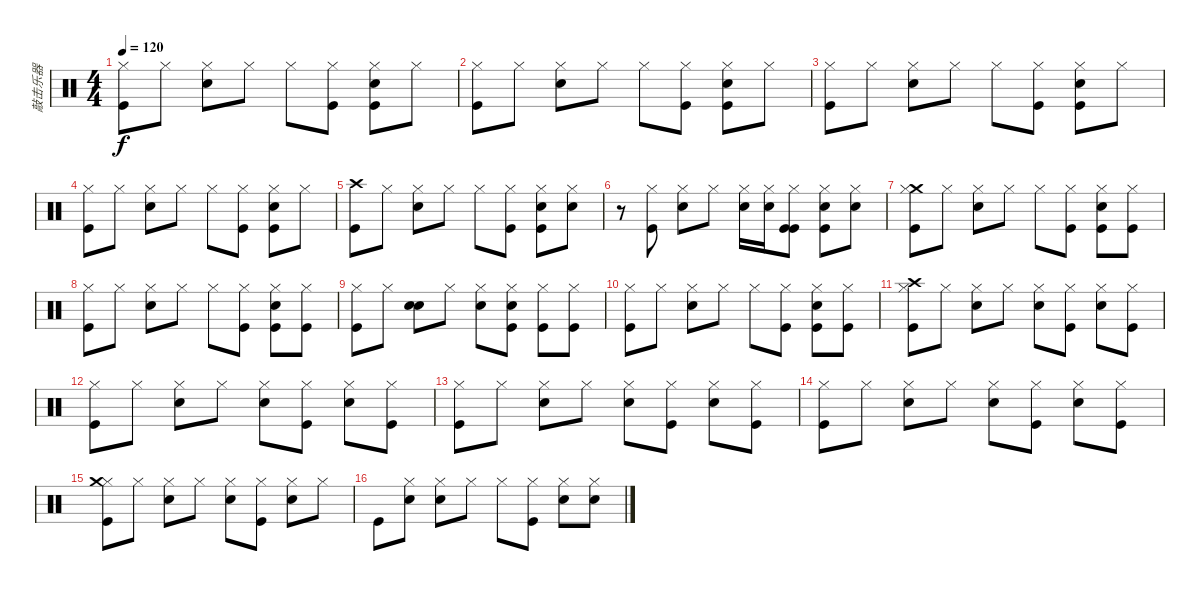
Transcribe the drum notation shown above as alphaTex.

\track ("敲击乐器" "敲击乐器") {instrument percussion}
\staff {score}
\articulation defaults
\ts (4 4)
\tempo 120
\clef neutral
\ks c
("Hi-Hat (closed)" "Kick (hit)").8{dy f} "Hi-Hat (closed)".8 ("Hi-Hat (closed)" "Snare (hit) 2").8 "Hi-Hat (closed)".8 "Hi-Hat (closed)".8 ("Hi-Hat (closed)" "Kick (hit)").8 ("Hi-Hat (closed)" "Snare (hit) 2" "Kick (hit)").8 "Hi-Hat (closed)".8 |
("Hi-Hat (closed)" "Kick (hit)").8 "Hi-Hat (closed)".8 ("Hi-Hat (closed)" "Snare (hit) 2").8 "Hi-Hat (closed)".8 "Hi-Hat (closed)".8 ("Hi-Hat (closed)" "Kick (hit)").8 ("Hi-Hat (closed)" "Snare (hit) 2" "Kick (hit)").8 "Hi-Hat (closed)".8 |
("Hi-Hat (closed)" "Kick (hit)").8 "Hi-Hat (closed)".8 ("Hi-Hat (closed)" "Snare (hit) 2").8 "Hi-Hat (closed)".8 "Hi-Hat (closed)".8 ("Hi-Hat (closed)" "Kick (hit)").8 ("Hi-Hat (closed)" "Snare (hit) 2" "Kick (hit)").8 "Hi-Hat (closed)".8 |
("Hi-Hat (closed)" "Kick (hit)").8 "Hi-Hat (closed)".8 ("Hi-Hat (closed)" "Snare (hit) 2").8 "Hi-Hat (closed)".8 "Hi-Hat (closed)".8 ("Hi-Hat (closed)" "Kick (hit)").8 ("Hi-Hat (closed)" "Snare (hit) 2" "Kick (hit)").8 "Hi-Hat (closed)".8 |
("Crash high (hit)" "Kick (hit)").8 "Hi-Hat (closed)".8 ("Hi-Hat (closed)" "Snare (hit) 2").8 "Hi-Hat (closed)".8 "Hi-Hat (closed)".8 ("Hi-Hat (closed)" "Kick (hit)").8 ("Hi-Hat (closed)" "Snare (hit) 2" "Kick (hit)").8 ("Hi-Hat (closed)" "Snare (hit) 2").8 |
r.8 ("Hi-Hat (closed)" "Kick (hit)").8 ("Hi-Hat (closed)" "Snare (hit) 2").8 "Hi-Hat (closed)".8 ("Hi-Hat (closed)" "Snare (hit) 2").16 ("Hi-Hat (closed)" "Snare (hit) 2").16 ("Hi-Hat (closed)" "Kick (hit)" "Kick (hit)").8 ("Hi-Hat (closed)" "Snare (hit) 2" "Kick (hit)").8 ("Hi-Hat (closed)" "Snare (hit) 2").8 |
("Crash medium (hit)" "Hi-Hat (closed)" "Kick (hit)").8 "Hi-Hat (closed)".8 ("Hi-Hat (closed)" "Snare (hit) 2").8 "Hi-Hat (closed)".8 "Hi-Hat (closed)".8 ("Hi-Hat (closed)" "Kick (hit)").8 ("Hi-Hat (closed)" "Snare (hit) 2" "Kick (hit)").8 ("Hi-Hat (closed)" "Kick (hit)").8 |
("Hi-Hat (closed)" "Kick (hit)").8 "Hi-Hat (closed)".8 ("Hi-Hat (closed)" "Snare (hit) 2").8 "Hi-Hat (closed)".8 "Hi-Hat (closed)".8 ("Hi-Hat (closed)" "Kick (hit)").8 ("Hi-Hat (closed)" "Snare (hit) 2" "Kick (hit)").8 ("Hi-Hat (closed)" "Kick (hit)").8 |
("Hi-Hat (closed)" "Kick (hit)").8 "Hi-Hat (closed)".8 ("Snare (hit)" "Snare (hit) 2").8 "Hi-Hat (closed)".8 ("Hi-Hat (closed)" "Snare (hit) 2").8 ("Hi-Hat (closed)" "Snare (hit) 2" "Kick (hit)").8 ("Hi-Hat (closed)" "Kick (hit)").8 ("Hi-Hat (closed)" "Kick (hit)").8 |
("Hi-Hat (closed)" "Kick (hit)").8 "Hi-Hat (closed)".8 ("Hi-Hat (closed)" "Snare (hit) 2").8 "Hi-Hat (closed)".8 "Hi-Hat (closed)".8 ("Hi-Hat (closed)" "Kick (hit)").8 ("Hi-Hat (closed)" "Snare (hit) 2" "Kick (hit)").8 ("Hi-Hat (closed)" "Kick (hit)").8 |
("Hi-Hat (closed)" "Crash high (hit)" "Kick (hit)").8 "Hi-Hat (closed)".8 ("Hi-Hat (closed)" "Snare (hit) 2").8 "Hi-Hat (closed)".8 ("Hi-Hat (closed)" "Snare (hit) 2").8 ("Hi-Hat (closed)" "Kick (hit)").8 ("Hi-Hat (closed)" "Snare (hit) 2").8 ("Hi-Hat (closed)" "Kick (hit)").8 |
("Hi-Hat (closed)" "Kick (hit)").8 "Hi-Hat (closed)".8 ("Hi-Hat (closed)" "Snare (hit) 2").8 "Hi-Hat (closed)".8 ("Hi-Hat (closed)" "Snare (hit) 2").8 ("Hi-Hat (closed)" "Kick (hit)").8 ("Hi-Hat (closed)" "Snare (hit) 2").8 ("Hi-Hat (closed)" "Kick (hit)").8 |
("Hi-Hat (closed)" "Kick (hit)").8 "Hi-Hat (closed)".8 ("Hi-Hat (closed)" "Snare (hit) 2").8 "Hi-Hat (closed)".8 ("Hi-Hat (closed)" "Snare (hit) 2").8 ("Hi-Hat (closed)" "Kick (hit)").8 ("Hi-Hat (closed)" "Snare (hit) 2").8 ("Hi-Hat (closed)" "Kick (hit)").8 |
("Hi-Hat (closed)" "Kick (hit)").8 "Hi-Hat (closed)".8 ("Hi-Hat (closed)" "Snare (hit) 2").8 "Hi-Hat (closed)".8 ("Hi-Hat (closed)" "Snare (hit) 2").8 ("Hi-Hat (closed)" "Kick (hit)").8 ("Hi-Hat (closed)" "Snare (hit) 2").8 ("Hi-Hat (closed)" "Kick (hit)").8 |
("Hi-Hat (closed)" "Crash medium (hit)" "Kick (hit)").8 "Hi-Hat (closed)".8 ("Hi-Hat (closed)" "Snare (hit) 2").8 "Hi-Hat (closed)".8 ("Hi-Hat (closed)" "Snare (hit) 2").8 ("Hi-Hat (closed)" "Kick (hit)").8 ("Hi-Hat (closed)" "Snare (hit) 2").8 "Hi-Hat (closed)".8 |
"Kick (hit)".8 ("Hi-Hat (closed)" "Snare (hit) 2").8 ("Hi-Hat (closed)" "Snare (hit) 2").8 "Hi-Hat (closed)".8 "Hi-Hat (closed)".8 ("Hi-Hat (closed)" "Kick (hit)").8 ("Hi-Hat (closed)" "Snare (hit) 2").8 ("Hi-Hat (closed)" "Snare (hit) 2").8
